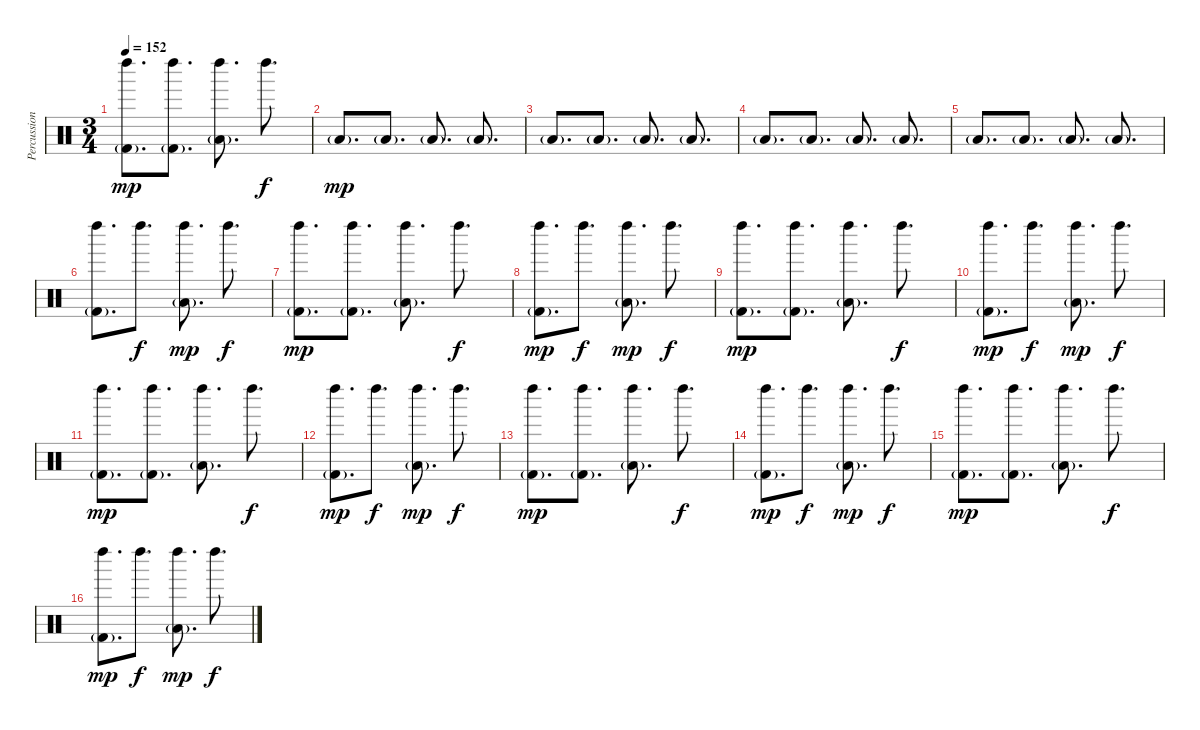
\track ("Percussion" "Percussion") {instrument percussion}
\staff {score}
\articulation defaults
\ts (3 4)
\tempo 152
\clef neutral
\ks c
("Left Maraca (hit)" "Kick (hit) 2"{g}).8{d dy mp} ("Left Maraca (hit)" "Kick (hit) 2"{g}).8{d} ("Left Maraca (hit)" "Low Tom (hit)"{g}).8{d} "Left Maraca (hit)".8{d dy f} |
"Low Floor Tom (hit)"{g}.8{d dy mp} "Low Floor Tom (hit)"{g}.8{d} "Low Floor Tom (hit)"{g}.8{d} "Low Floor Tom (hit)"{g}.8{d} |
"Low Floor Tom (hit)"{g}.8{d} "Low Floor Tom (hit)"{g}.8{d} "Low Floor Tom (hit)"{g}.8{d} "Low Floor Tom (hit)"{g}.8{d} |
"Low Floor Tom (hit)"{g}.8{d} "Low Floor Tom (hit)"{g}.8{d} "Low Floor Tom (hit)"{g}.8{d} "Low Floor Tom (hit)"{g}.8{d} |
"Low Floor Tom (hit)"{g}.8{d} "Low Floor Tom (hit)"{g}.8{d} "Low Floor Tom (hit)"{g}.8{d} "Low Floor Tom (hit)"{g}.8{d} |
("Left Maraca (hit)" "Kick (hit) 2"{g}).8{d} "Left Maraca (hit)".8{d dy f} ("Left Maraca (hit)" "Low Tom (hit)"{g}).8{d dy mp} "Left Maraca (hit)".8{d dy f} |
("Left Maraca (hit)" "Kick (hit) 2"{g}).8{d dy mp} ("Left Maraca (hit)" "Kick (hit) 2"{g}).8{d} ("Left Maraca (hit)" "Low Tom (hit)"{g}).8{d} "Left Maraca (hit)".8{d dy f} |
("Left Maraca (hit)" "Kick (hit) 2"{g}).8{d dy mp} "Left Maraca (hit)".8{d dy f} ("Left Maraca (hit)" "Low Tom (hit)"{g}).8{d dy mp} "Left Maraca (hit)".8{d dy f} |
("Left Maraca (hit)" "Kick (hit) 2"{g}).8{d dy mp} ("Left Maraca (hit)" "Kick (hit) 2"{g}).8{d} ("Left Maraca (hit)" "Low Tom (hit)"{g}).8{d} "Left Maraca (hit)".8{d dy f} |
("Left Maraca (hit)" "Kick (hit) 2"{g}).8{d dy mp} "Left Maraca (hit)".8{d dy f} ("Left Maraca (hit)" "Low Tom (hit)"{g}).8{d dy mp} "Left Maraca (hit)".8{d dy f} |
("Left Maraca (hit)" "Kick (hit) 2"{g}).8{d dy mp} ("Left Maraca (hit)" "Kick (hit) 2"{g}).8{d} ("Left Maraca (hit)" "Low Tom (hit)"{g}).8{d} "Left Maraca (hit)".8{d dy f} |
("Left Maraca (hit)" "Kick (hit) 2"{g}).8{d dy mp} "Left Maraca (hit)".8{d dy f} ("Left Maraca (hit)" "Low Tom (hit)"{g}).8{d dy mp} "Left Maraca (hit)".8{d dy f} |
("Left Maraca (hit)" "Kick (hit) 2"{g}).8{d dy mp} ("Left Maraca (hit)" "Kick (hit) 2"{g}).8{d} ("Left Maraca (hit)" "Low Tom (hit)"{g}).8{d} "Left Maraca (hit)".8{d dy f} |
("Left Maraca (hit)" "Kick (hit) 2"{g}).8{d dy mp} "Left Maraca (hit)".8{d dy f} ("Left Maraca (hit)" "Low Tom (hit)"{g}).8{d dy mp} "Left Maraca (hit)".8{d dy f} |
("Left Maraca (hit)" "Kick (hit) 2"{g}).8{d dy mp} ("Left Maraca (hit)" "Kick (hit) 2"{g}).8{d} ("Left Maraca (hit)" "Low Tom (hit)"{g}).8{d} "Left Maraca (hit)".8{d dy f} |
("Left Maraca (hit)" "Kick (hit) 2"{g}).8{d dy mp} "Left Maraca (hit)".8{d dy f} ("Left Maraca (hit)" "Low Tom (hit)"{g}).8{d dy mp} "Left Maraca (hit)".8{d dy f}
